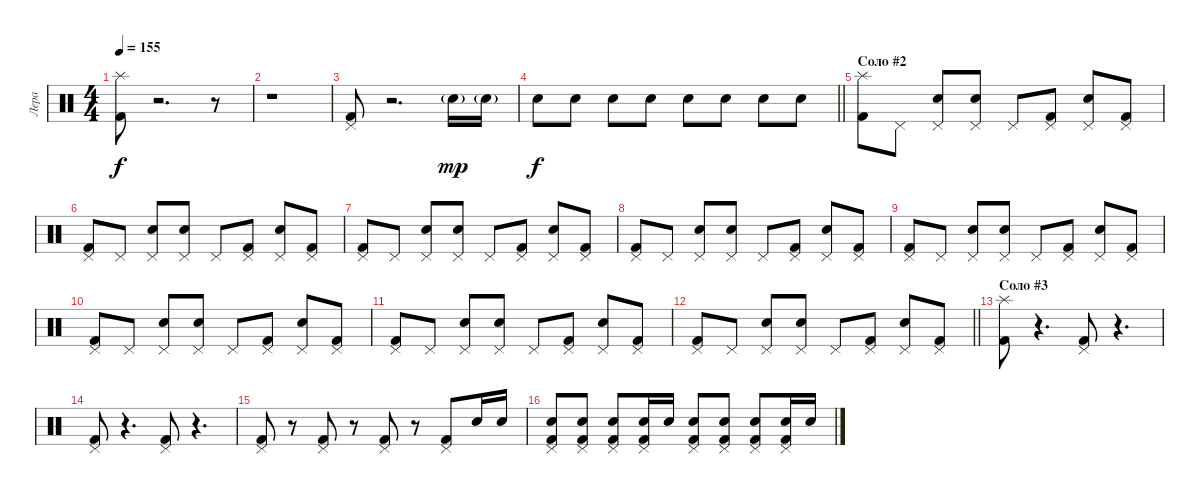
\track ("Лера" "Лера") {instrument percussion}
\staff {score}
\articulation defaults
\ts (4 4)
\tempo 155
\clef neutral
\ks c
("Splash (hit)" "Kick (hit) 2").8{dy f} r.2{d} r.8 |
r.1 |
("Pedal Hi-Hat (hit)" "Kick (hit) 2").8 r.2{d} "Electric Snare (hit)"{g}.16{dy mp} "Electric Snare (hit)"{g}.16 |
\barLineRight lightlight "Electric Snare (hit)".8{dy f} "Electric Snare (hit)".8 "Electric Snare (hit)".8 "Electric Snare (hit)".8 "Electric Snare (hit)".8 "Electric Snare (hit)".8 "Electric Snare (hit)".8 "Electric Snare (hit)".8
|
\section ("" "Соло #2")
("Splash (hit)" "Kick (hit) 2").8 "Pedal Hi-Hat (hit)".8 ("Pedal Hi-Hat (hit)" "Electric Snare (hit)").8 ("Pedal Hi-Hat (hit)" "Electric Snare (hit)").8 "Pedal Hi-Hat (hit)".8 ("Pedal Hi-Hat (hit)" "Kick (hit) 2").8 ("Pedal Hi-Hat (hit)" "Electric Snare (hit)").8 ("Pedal Hi-Hat (hit)" "Kick (hit) 2").8 |
("Pedal Hi-Hat (hit)" "Kick (hit) 2").8 "Pedal Hi-Hat (hit)".8 ("Pedal Hi-Hat (hit)" "Electric Snare (hit)").8 ("Pedal Hi-Hat (hit)" "Electric Snare (hit)").8 "Pedal Hi-Hat (hit)".8 ("Pedal Hi-Hat (hit)" "Kick (hit) 2").8 ("Pedal Hi-Hat (hit)" "Electric Snare (hit)").8 ("Pedal Hi-Hat (hit)" "Kick (hit) 2").8 |
("Pedal Hi-Hat (hit)" "Kick (hit) 2").8 "Pedal Hi-Hat (hit)".8 ("Pedal Hi-Hat (hit)" "Electric Snare (hit)").8 ("Pedal Hi-Hat (hit)" "Electric Snare (hit)").8 "Pedal Hi-Hat (hit)".8 ("Pedal Hi-Hat (hit)" "Kick (hit) 2").8 ("Pedal Hi-Hat (hit)" "Electric Snare (hit)").8 ("Pedal Hi-Hat (hit)" "Kick (hit) 2").8 |
("Pedal Hi-Hat (hit)" "Kick (hit) 2").8 "Pedal Hi-Hat (hit)".8 ("Pedal Hi-Hat (hit)" "Electric Snare (hit)").8 ("Pedal Hi-Hat (hit)" "Electric Snare (hit)").8 "Pedal Hi-Hat (hit)".8 ("Pedal Hi-Hat (hit)" "Kick (hit) 2").8 ("Pedal Hi-Hat (hit)" "Electric Snare (hit)").8 ("Pedal Hi-Hat (hit)" "Kick (hit) 2").8 |
("Pedal Hi-Hat (hit)" "Kick (hit) 2").8 "Pedal Hi-Hat (hit)".8 ("Pedal Hi-Hat (hit)" "Electric Snare (hit)").8 ("Pedal Hi-Hat (hit)" "Electric Snare (hit)").8 "Pedal Hi-Hat (hit)".8 ("Pedal Hi-Hat (hit)" "Kick (hit) 2").8 ("Pedal Hi-Hat (hit)" "Electric Snare (hit)").8 ("Pedal Hi-Hat (hit)" "Kick (hit) 2").8 |
("Pedal Hi-Hat (hit)" "Kick (hit) 2").8 "Pedal Hi-Hat (hit)".8 ("Pedal Hi-Hat (hit)" "Electric Snare (hit)").8 ("Pedal Hi-Hat (hit)" "Electric Snare (hit)").8 "Pedal Hi-Hat (hit)".8 ("Pedal Hi-Hat (hit)" "Kick (hit) 2").8 ("Pedal Hi-Hat (hit)" "Electric Snare (hit)").8 ("Pedal Hi-Hat (hit)" "Kick (hit) 2").8 |
("Pedal Hi-Hat (hit)" "Kick (hit) 2").8 "Pedal Hi-Hat (hit)".8 ("Pedal Hi-Hat (hit)" "Electric Snare (hit)").8 ("Pedal Hi-Hat (hit)" "Electric Snare (hit)").8 "Pedal Hi-Hat (hit)".8 ("Pedal Hi-Hat (hit)" "Kick (hit) 2").8 ("Pedal Hi-Hat (hit)" "Electric Snare (hit)").8 ("Pedal Hi-Hat (hit)" "Kick (hit) 2").8 |
\barLineRight lightlight
("Pedal Hi-Hat (hit)" "Kick (hit) 2").8 "Pedal Hi-Hat (hit)".8 ("Pedal Hi-Hat (hit)" "Electric Snare (hit)").8 ("Pedal Hi-Hat (hit)" "Electric Snare (hit)").8 "Pedal Hi-Hat (hit)".8 ("Pedal Hi-Hat (hit)" "Kick (hit) 2").8 ("Pedal Hi-Hat (hit)" "Electric Snare (hit)").8 ("Pedal Hi-Hat (hit)" "Kick (hit) 2").8 |
\section ("" "Соло #3")
("Splash (hit)" "Kick (hit) 2").8 r.4{d} ("Pedal Hi-Hat (hit)" "Kick (hit) 2").8 r.4{d} |
("Pedal Hi-Hat (hit)" "Kick (hit) 2").8 r.4{d} ("Pedal Hi-Hat (hit)" "Kick (hit) 2").8 r.4{d} |
("Pedal Hi-Hat (hit)" "Kick (hit) 2").8 r.8 ("Pedal Hi-Hat (hit)" "Kick (hit) 2").8 r.8 ("Pedal Hi-Hat (hit)" "Kick (hit) 2").8 r.8 ("Pedal Hi-Hat (hit)" "Kick (hit) 2").8 "Electric Snare (hit)".16 "Electric Snare (hit)".16 |
("Pedal Hi-Hat (hit)" "Electric Snare (hit)" "Kick (hit) 2").8 ("Pedal Hi-Hat (hit)" "Electric Snare (hit)" "Kick (hit) 2").8 ("Pedal Hi-Hat (hit)" "Electric Snare (hit)" "Kick (hit) 2").8 ("Pedal Hi-Hat (hit)" "Electric Snare (hit)" "Kick (hit) 2").16 "Electric Snare (hit)".16 ("Pedal Hi-Hat (hit)" "Electric Snare (hit)" "Kick (hit) 2").8 ("Pedal Hi-Hat (hit)" "Electric Snare (hit)" "Kick (hit) 2").8 ("Pedal Hi-Hat (hit)" "Electric Snare (hit)" "Kick (hit) 2").8 ("Pedal Hi-Hat (hit)" "Electric Snare (hit)" "Kick (hit) 2").16 "Electric Snare (hit)".16
